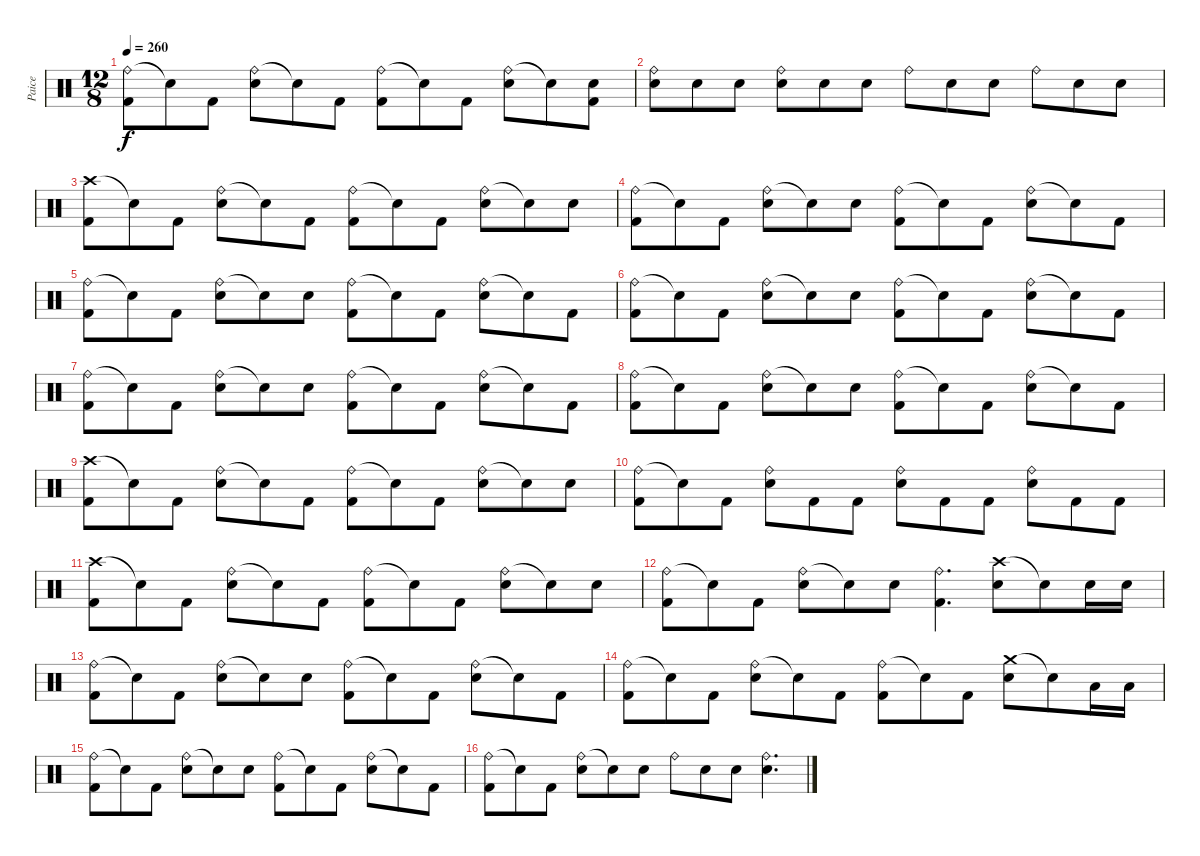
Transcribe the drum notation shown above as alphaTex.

\track ("Paice" "Paice") {instrument percussion}
\staff {score}
\articulation defaults
\ts (12 8)
\tempo 260
\clef neutral
\ks c
("Ride (bell)" "Kick (hit) 2").8{dy f} "Snare (hit)"{t}.8 "Kick (hit) 2".8 ("Ride (bell)" "Electric Snare (hit)").8 "Snare (hit)"{t}.8 "Kick (hit) 2".8 ("Ride (bell)" "Kick (hit) 2").8 "Snare (hit)"{t}.8 "Kick (hit) 2".8 ("Ride (bell)" "Electric Snare (hit)").8 "Snare (hit)"{t}.8 ("Electric Snare (hit)" "Kick (hit) 2").8 |
("Ride (bell)" "Electric Snare (hit)").8 "Electric Snare (hit)".8 "Electric Snare (hit)".8 ("Ride (bell)" "Electric Snare (hit)").8 "Electric Snare (hit)".8 "Electric Snare (hit)".8 "Ride (bell)".8 "Electric Snare (hit)".8 "Electric Snare (hit)".8 "Ride (bell)".8 "Electric Snare (hit)".8 "Electric Snare (hit)".8 |
("Crash high (hit)" "Kick (hit) 2").8 "Snare (hit)"{t}.8 "Kick (hit) 2".8 ("Ride (bell)" "Electric Snare (hit)").8 "Snare (hit)"{t}.8 "Kick (hit) 2".8 ("Ride (bell)" "Kick (hit) 2").8 "Snare (hit)"{t}.8 "Kick (hit) 2".8 ("Ride (bell)" "Electric Snare (hit)").8 "Snare (hit)"{t}.8 "Electric Snare (hit)".8 |
("Ride (bell)" "Kick (hit) 2").8 "Snare (hit)"{t}.8 "Kick (hit) 2".8 ("Ride (bell)" "Electric Snare (hit)").8 "Snare (hit)"{t}.8 "Electric Snare (hit)".8 ("Ride (bell)" "Kick (hit) 2").8 "Snare (hit)"{t}.8 "Kick (hit) 2".8 ("Ride (bell)" "Electric Snare (hit)").8 "Snare (hit)"{t}.8 "Kick (hit) 2".8 |
("Ride (bell)" "Kick (hit) 2").8 "Snare (hit)"{t}.8 "Kick (hit) 2".8 ("Ride (bell)" "Electric Snare (hit)").8 "Snare (hit)"{t}.8 "Electric Snare (hit)".8 ("Ride (bell)" "Kick (hit) 2").8 "Snare (hit)"{t}.8 "Kick (hit) 2".8 ("Ride (bell)" "Electric Snare (hit)").8 "Snare (hit)"{t}.8 "Kick (hit) 2".8 |
("Ride (bell)" "Kick (hit) 2").8 "Snare (hit)"{t}.8 "Kick (hit) 2".8 ("Ride (bell)" "Electric Snare (hit)").8 "Snare (hit)"{t}.8 "Electric Snare (hit)".8 ("Ride (bell)" "Kick (hit) 2").8 "Snare (hit)"{t}.8 "Kick (hit) 2".8 ("Ride (bell)" "Electric Snare (hit)").8 "Snare (hit)"{t}.8 "Kick (hit) 2".8 |
("Ride (bell)" "Kick (hit) 2").8 "Snare (hit)"{t}.8 "Kick (hit) 2".8 ("Ride (bell)" "Electric Snare (hit)").8 "Snare (hit)"{t}.8 "Electric Snare (hit)".8 ("Ride (bell)" "Kick (hit) 2").8 "Snare (hit)"{t}.8 "Kick (hit) 2".8 ("Ride (bell)" "Electric Snare (hit)").8 "Snare (hit)"{t}.8 "Kick (hit) 2".8 |
("Ride (bell)" "Kick (hit) 2").8 "Snare (hit)"{t}.8 "Kick (hit) 2".8 ("Ride (bell)" "Electric Snare (hit)").8 "Snare (hit)"{t}.8 "Electric Snare (hit)".8 ("Ride (bell)" "Kick (hit) 2").8 "Snare (hit)"{t}.8 "Kick (hit) 2".8 ("Ride (bell)" "Electric Snare (hit)").8 "Snare (hit)"{t}.8 "Kick (hit) 2".8 |
("Crash high (hit)" "Kick (hit) 2").8 "Snare (hit)"{t}.8 "Kick (hit) 2".8 ("Ride (bell)" "Electric Snare (hit)").8 "Snare (hit)"{t}.8 "Kick (hit) 2".8 ("Ride (bell)" "Kick (hit) 2").8 "Snare (hit)"{t}.8 "Kick (hit) 2".8 ("Ride (bell)" "Electric Snare (hit)").8 "Snare (hit)"{t}.8 "Electric Snare (hit)".8 |
("Ride (bell)" "Kick (hit) 2").8 "Snare (hit)"{t}.8 "Kick (hit) 2".8 ("Ride (bell)" "Electric Snare (hit)").8 "Kick (hit) 2".8 "Kick (hit) 2".8 ("Ride (bell)" "Electric Snare (hit)").8 "Kick (hit) 2".8 "Kick (hit) 2".8 ("Ride (bell)" "Electric Snare (hit)").8 "Kick (hit) 2".8 "Kick (hit) 2".8 |
("Crash high (hit)" "Kick (hit) 2").8 "Snare (hit)"{t}.8 "Kick (hit) 2".8 ("Ride (bell)" "Electric Snare (hit)").8 "Snare (hit)"{t}.8 "Kick (hit) 2".8 ("Ride (bell)" "Kick (hit) 2").8 "Snare (hit)"{t}.8 "Kick (hit) 2".8 ("Ride (bell)" "Electric Snare (hit)").8 "Snare (hit)"{t}.8 "Electric Snare (hit)".8 |
("Ride (bell)" "Kick (hit) 2").8 "Snare (hit)"{t}.8 "Kick (hit) 2".8 ("Ride (bell)" "Electric Snare (hit)").8 "Snare (hit)"{t}.8 "Electric Snare (hit)".8 ("Ride (bell)" "Kick (hit) 2").4{d} ("Crash high (hit)" "Electric Snare (hit)").8 "Snare (hit)"{t}.8 "Electric Snare (hit)".16 "Electric Snare (hit)".16 |
("Ride (bell)" "Kick (hit) 2").8 "Snare (hit)"{t}.8 "Kick (hit) 2".8 ("Ride (bell)" "Electric Snare (hit)").8 "Snare (hit)"{t}.8 "Electric Snare (hit)".8 ("Ride (bell)" "Kick (hit) 2").8 "Snare (hit)"{t}.8 "Kick (hit) 2".8 ("Ride (bell)" "Electric Snare (hit)").8 "Snare (hit)"{t}.8 "Kick (hit) 2".8 |
("Ride (bell)" "Kick (hit) 2").8 "Snare (hit)"{t}.8 "Kick (hit) 2".8 ("Ride (bell)" "Electric Snare (hit)").8 "Snare (hit)"{t}.8 "Kick (hit) 2".8 ("Ride (bell)" "Kick (hit) 2").8 "Snare (hit)"{t}.8 "Kick (hit) 2".8 ("Crash medium (hit)" "Electric Snare (hit)").8 "Snare (hit)"{t}.8 "Low Tom (hit)".16 "Low Tom (hit)".16 |
("Ride (bell)" "Kick (hit) 2").8 "Snare (hit)"{t}.8 "Kick (hit) 2".8 ("Ride (bell)" "Electric Snare (hit)").8 "Snare (hit)"{t}.8 "Electric Snare (hit)".8 ("Ride (bell)" "Kick (hit) 2").8 "Snare (hit)"{t}.8 "Kick (hit) 2".8 ("Ride (bell)" "Electric Snare (hit)").8 "Snare (hit)"{t}.8 "Kick (hit) 2".8 |
("Ride (bell)" "Kick (hit) 2").8 "Snare (hit)"{t}.8 "Kick (hit) 2".8 ("Ride (bell)" "Electric Snare (hit)").8 "Snare (hit)"{t}.8 "Electric Snare (hit)".8 "Ride (bell)".8 "Electric Snare (hit)".8 "Electric Snare (hit)".8 ("Ride (bell)" "Electric Snare (hit)").4{d}
